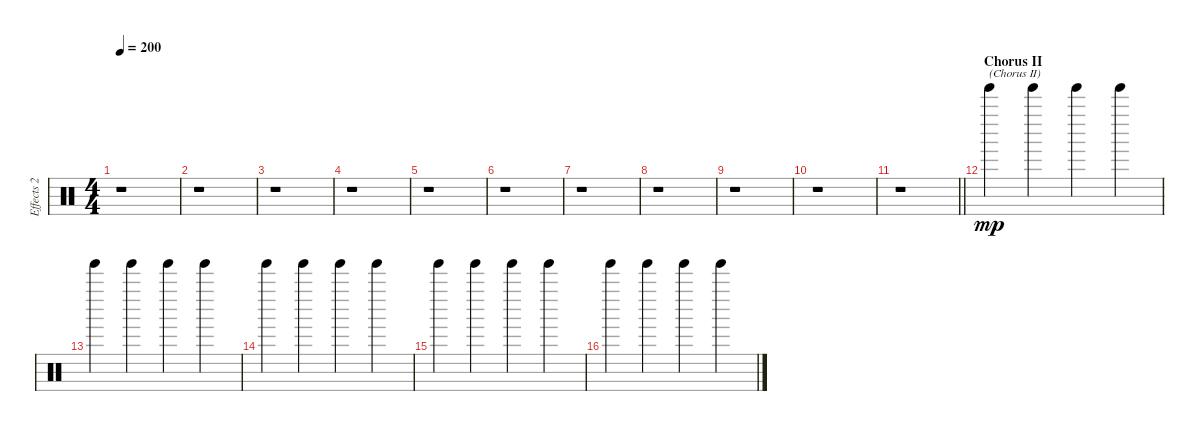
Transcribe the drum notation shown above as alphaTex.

\track ("Effects 2" "Effects 2") {instrument percussion}
\staff {score}
\articulation defaults
\ts (4 4)
\tempo 200
\clef neutral
\ks c
r.1{dy mp} |
r.1 |
r.1 |
r.1 |
r.1 |
r.1 |
r.1 |
r.1 |
r.1 |
r.1 |
\barLineRight lightlight
r.1 |
\section ("" "Chorus II")
"Tinkle Bell (hit)".4{txt "(Chorus II)"} "Tinkle Bell (hit)".4 "Tinkle Bell (hit)".4 "Tinkle Bell (hit)".4 |
"Tinkle Bell (hit)".4 "Tinkle Bell (hit)".4 "Tinkle Bell (hit)".4 "Tinkle Bell (hit)".4 |
"Tinkle Bell (hit)".4 "Tinkle Bell (hit)".4 "Tinkle Bell (hit)".4 "Tinkle Bell (hit)".4 |
"Tinkle Bell (hit)".4 "Tinkle Bell (hit)".4 "Tinkle Bell (hit)".4 "Tinkle Bell (hit)".4 |
"Tinkle Bell (hit)".4 "Tinkle Bell (hit)".4 "Tinkle Bell (hit)".4 "Tinkle Bell (hit)".4
